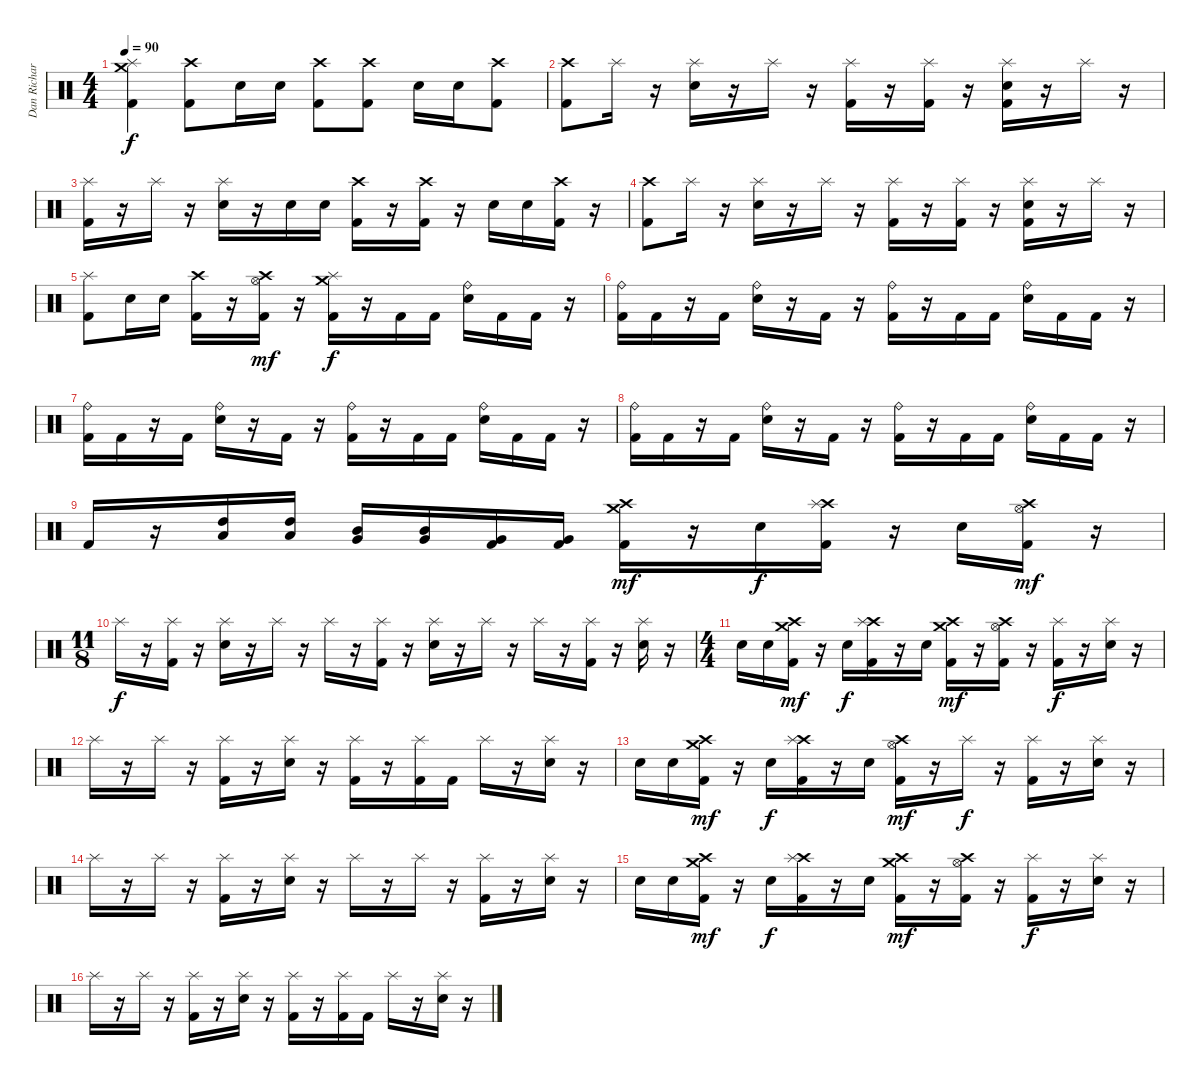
\track ("Dan Richardson" "Dan Richar") {instrument percussion}
\staff {score}
\articulation defaults
\ts (4 4)
\tempo 90
\clef neutral
\ks c
("Crash medium (hit)" "Splash (hit)" "Kick (hit) 2").4{dy f} ("Crash high (hit)" "Kick (hit) 2").8 "Snare (hit) 2".16 "Snare (hit) 2".16 ("Crash high (hit)" "Kick (hit) 2").8 ("Crash high (hit)" "Kick (hit) 2").8 "Snare (hit) 2".16 "Snare (hit) 2".16 ("Crash high (hit)" "Kick (hit) 2").8 |
("Crash high (hit)" "Kick (hit) 2").8 "Splash (hit)".16 r.16 ("Splash (hit)" "Snare (hit) 2").16 r.16 "Splash (hit)".16 r.16 ("Splash (hit)" "Kick (hit) 2").16 r.16 ("Splash (hit)" "Kick (hit) 2").16 r.16 ("Splash (hit)" "Snare (hit) 2" "Kick (hit) 2").16 r.16 "Splash (hit)".16 r.16 |
("Splash (hit)" "Kick (hit) 2").16 r.16 "Splash (hit)".16 r.16 ("Splash (hit)" "Snare (hit) 2").16 r.16 "Snare (hit) 2".16 "Snare (hit) 2".16 ("Crash high (hit)" "Kick (hit) 2").16 r.16 ("Crash high (hit)" "Kick (hit) 2").16 r.16 "Snare (hit) 2".16 "Snare (hit) 2".16 ("Crash high (hit)" "Kick (hit) 2").16 r.16 |
("Crash high (hit)" "Kick (hit) 2").8 "Splash (hit)".16 r.16 ("Splash (hit)" "Snare (hit) 2").16 r.16 "Splash (hit)".16 r.16 ("Splash (hit)" "Kick (hit) 2").16 r.16 ("Splash (hit)" "Kick (hit) 2").16 r.16 ("Splash (hit)" "Snare (hit) 2" "Kick (hit) 2").16 r.16 "Splash (hit)".16 r.16 |
("Splash (hit)" "Kick (hit) 2").8 "Snare (hit) 2".16 "Snare (hit) 2".16 ("Crash high (hit)" "Kick (hit) 2").16 r.16 ("Crash high (hit)" "Hi-Hat (open)" "Kick (hit) 2").16{dy mf} r.16 ("Crash medium (hit)" "Splash (hit)" "Kick (hit) 2").16{dy f} r.16 "Kick (hit) 2".16 "Kick (hit) 2".16 ("Ride (bell)" "Snare (hit) 2").16 "Kick (hit) 2".16 "Kick (hit) 2".16 r.16 |
("Ride (bell)" "Kick (hit) 2").16 "Kick (hit) 2".16 r.16 "Kick (hit) 2".16 ("Ride (bell)" "Snare (hit) 2").16 r.16 "Kick (hit) 2".16 r.16 ("Ride (bell)" "Kick (hit) 2").16 r.16 "Kick (hit) 2".16 "Kick (hit) 2".16 ("Ride (bell)" "Snare (hit) 2").16 "Kick (hit) 2".16 "Kick (hit) 2".16 r.16 |
("Ride (bell)" "Kick (hit) 2").16 "Kick (hit) 2".16 r.16 "Kick (hit) 2".16 ("Ride (bell)" "Snare (hit) 2").16 r.16 "Kick (hit) 2".16 r.16 ("Ride (bell)" "Kick (hit) 2").16 r.16 "Kick (hit) 2".16 "Kick (hit) 2".16 ("Ride (bell)" "Snare (hit) 2").16 "Kick (hit) 2".16 "Kick (hit) 2".16 r.16 |
("Ride (bell)" "Kick (hit) 2").16 "Kick (hit) 2".16 r.16 "Kick (hit) 2".16 ("Ride (bell)" "Snare (hit) 2").16 r.16 "Kick (hit) 2".16 r.16 ("Ride (bell)" "Kick (hit) 2").16 r.16 "Kick (hit) 2".16 "Kick (hit) 2".16 ("Ride (bell)" "Snare (hit) 2").16 "Kick (hit) 2".16 "Kick (hit) 2".16 r.16 |
"Kick (hit) 2".16 r.16 ("High Tom (hit)" "Low Tom (hit)").16 ("High Tom (hit)" "Low Tom (hit)").16 ("Mid Tom (hit)" "Very Low Tom (hit)").16 ("Mid Tom (hit)" "Very Low Tom (hit)").16 ("Very Low Tom (hit)" "Kick (hit) 2").16 ("Very Low Tom (hit)" "Kick (hit) 2").16 ("Crash medium (hit)" "Crash high (hit)" "Kick (hit) 2").16{dy mf} r.16 "Snare (hit) 2".16{dy f} ("Crash high (hit)" "Splash (hit)" "Kick (hit) 2").16 r.16 "Snare (hit) 2".16 ("Crash high (hit)" "Hi-Hat (open)" "Kick (hit) 2").16{dy mf} r.16 |
\ts (11 8)
"Splash (hit)".16{dy f} r.16 ("Splash (hit)" "Kick (hit) 2").16 r.16 ("Splash (hit)" "Snare (hit) 2").16 r.16 "Splash (hit)".16 r.16 "Splash (hit)".16 r.16 ("Splash (hit)" "Kick (hit) 2").16 r.16 ("Splash (hit)" "Snare (hit) 2").16 r.16 "Splash (hit)".16 r.16 "Splash (hit)".16 r.16 ("Splash (hit)" "Kick (hit) 2").16 r.16 ("Splash (hit)" "Snare (hit) 2").16 r.16 |
\ts (4 4)
"Snare (hit) 2".16 "Snare (hit) 2".16 ("Crash medium (hit)" "Crash high (hit)" "Kick (hit) 2").16{dy mf} r.16 "Snare (hit) 2".16{dy f} ("Crash high (hit)" "Splash (hit)" "Kick (hit) 2").16 r.16 "Snare (hit) 2".16 ("Crash medium (hit)" "Crash high (hit)" "Kick (hit) 2").16{dy mf} r.16 ("Crash high (hit)" "Hi-Hat (open)" "Kick (hit) 2").16 r.16 ("Splash (hit)" "Kick (hit) 2").16{dy f} r.16 ("Splash (hit)" "Snare (hit) 2").16 r.16 |
"Splash (hit)".16 r.16 "Splash (hit)".16 r.16 ("Splash (hit)" "Kick (hit) 2").16 r.16 ("Splash (hit)" "Snare (hit) 2").16 r.16 ("Splash (hit)" "Kick (hit) 2").16 r.16 ("Splash (hit)" "Kick (hit) 2").16 "Kick (hit) 2".16 "Splash (hit)".16 r.16 ("Splash (hit)" "Snare (hit) 2").16 r.16 |
"Snare (hit) 2".16 "Snare (hit) 2".16 ("Crash medium (hit)" "Crash high (hit)" "Kick (hit) 2").16{dy mf} r.16 "Snare (hit) 2".16{dy f} ("Crash high (hit)" "Splash (hit)" "Kick (hit) 2").16 r.16 "Snare (hit) 2".16 ("Crash high (hit)" "Hi-Hat (open)" "Kick (hit) 2").16{dy mf} r.16 "Splash (hit)".16{dy f} r.16 ("Splash (hit)" "Kick (hit) 2").16 r.16 ("Splash (hit)" "Snare (hit) 2").16 r.16 |
"Splash (hit)".16 r.16 "Splash (hit)".16 r.16 ("Splash (hit)" "Kick (hit) 2").16 r.16 ("Splash (hit)" "Snare (hit) 2").16 r.16 "Splash (hit)".16 r.16 "Splash (hit)".16 r.16 ("Splash (hit)" "Kick (hit) 2").16 r.16 ("Splash (hit)" "Snare (hit) 2").16 r.16 |
"Snare (hit) 2".16 "Snare (hit) 2".16 ("Crash medium (hit)" "Crash high (hit)" "Kick (hit) 2").16{dy mf} r.16 "Snare (hit) 2".16{dy f} ("Crash high (hit)" "Splash (hit)" "Kick (hit) 2").16 r.16 "Snare (hit) 2".16 ("Crash medium (hit)" "Crash high (hit)" "Kick (hit) 2").16{dy mf} r.16 ("Crash high (hit)" "Hi-Hat (open)" "Kick (hit) 2").16 r.16 ("Splash (hit)" "Kick (hit) 2").16{dy f} r.16 ("Splash (hit)" "Snare (hit) 2").16 r.16 |
"Splash (hit)".16 r.16 "Splash (hit)".16 r.16 ("Splash (hit)" "Kick (hit) 2").16 r.16 ("Splash (hit)" "Snare (hit) 2").16 r.16 ("Splash (hit)" "Kick (hit) 2").16 r.16 ("Splash (hit)" "Kick (hit) 2").16 "Kick (hit) 2".16 "Splash (hit)".16 r.16 ("Splash (hit)" "Snare (hit) 2").16 r.16
